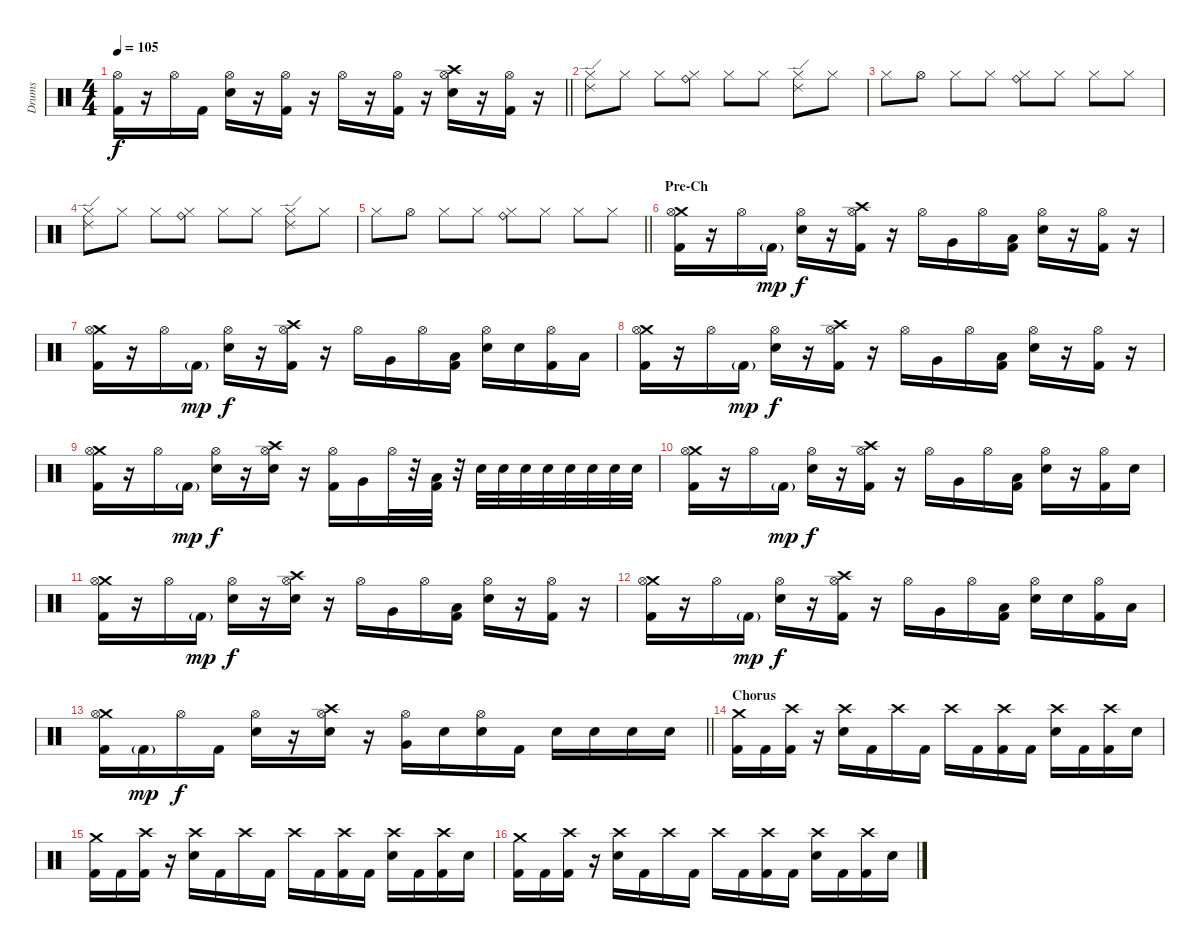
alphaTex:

\track ("Drums" "Drums") {instrument percussion}
\staff {score}
\articulation defaults
\ts (4 4)
\tempo 105
\clef neutral
\barLineRight lightlight
\ks c
("Hi-Hat (open)" "Kick (hit) 2").16{dy f} r.16 "Hi-Hat (open)".16 "Kick (hit) 2".16 ("Hi-Hat (open)" "Electric Snare (hit)").16 r.16 ("Hi-Hat (open)" "Kick (hit) 2").16 r.16 "Hi-Hat (open)".16 r.16 ("Hi-Hat (open)" "Kick (hit) 2").16 r.16 ("Crash high (hit)" "Hi-Hat (open)" "Electric Snare (hit)").16 r.16 ("Hi-Hat (open)" "Kick (hit) 2").16 r.16 |
("Ride (edge) 2" "Hi-Hat (closed)").8 "Hi-Hat (closed)".8 "Hi-Hat (closed)".8 ("Ride (bell)" "Hi-Hat (closed)").8 "Hi-Hat (closed)".8 "Hi-Hat (closed)".8 ("Ride (edge) 2" "Hi-Hat (closed)").8 "Hi-Hat (closed)".8 |
"Hi-Hat (closed)".8 "Hi-Hat (open)".8 "Hi-Hat (closed)".8 "Hi-Hat (closed)".8 ("Ride (bell)" "Hi-Hat (closed)").8 "Hi-Hat (closed)".8 "Hi-Hat (closed)".8 "Hi-Hat (closed)".8 |
("Ride (edge) 2" "Hi-Hat (closed)").8 "Hi-Hat (closed)".8 "Hi-Hat (closed)".8 ("Ride (bell)" "Hi-Hat (closed)").8 "Hi-Hat (closed)".8 "Hi-Hat (closed)".8 ("Ride (edge) 2" "Hi-Hat (closed)").8 "Hi-Hat (closed)".8 |
\barLineRight lightlight "Hi-Hat (closed)".8 "Hi-Hat (open)".8 "Hi-Hat (closed)".8 "Hi-Hat (closed)".8
("Ride (bell)" "Hi-Hat (closed)").8 "Hi-Hat (closed)".8 "Hi-Hat (closed)".8 "Hi-Hat (closed)".8 |
\section ("" "Pre-Ch")
("Crash medium (hit)" "Hi-Hat (open)" "Kick (hit) 2").16 r.16 "Hi-Hat (open)".16 "Kick (hit) 2"{g}.16{dy mp} ("Hi-Hat (open)" "Electric Snare (hit)").16{dy f} r.16 ("Crash high (hit)" "Hi-Hat (open)" "Kick (hit) 2").16 r.16 "Hi-Hat (open)".16 "Very Low Tom (hit)".16 "Hi-Hat (open)".16 ("Low Floor Tom (hit)" "Kick (hit) 2").16 ("Hi-Hat (open)" "Electric Snare (hit)").16 r.16 ("Hi-Hat (open)" "Kick (hit) 2").16 r.16 |
("Crash medium (hit)" "Hi-Hat (open)" "Kick (hit) 2").16 r.16 "Hi-Hat (open)".16 "Kick (hit) 2"{g}.16{dy mp} ("Hi-Hat (open)" "Electric Snare (hit)").16{dy f} r.16 ("Crash high (hit)" "Hi-Hat (open)" "Kick (hit) 2").16 r.16 "Hi-Hat (open)".16 "Very Low Tom (hit)".16 "Hi-Hat (open)".16 ("Low Floor Tom (hit)" "Kick (hit) 2").16 ("Hi-Hat (open)" "Electric Snare (hit)").16 "Electric Snare (hit)".16 ("Hi-Hat (open)" "Kick (hit) 2").16 "Low Floor Tom (hit)".16 |
("Crash medium (hit)" "Hi-Hat (open)" "Kick (hit) 2").16 r.16 "Hi-Hat (open)".16 "Kick (hit) 2"{g}.16{dy mp} ("Hi-Hat (open)" "Electric Snare (hit)").16{dy f} r.16 ("Crash high (hit)" "Hi-Hat (open)" "Kick (hit) 2").16 r.16 "Hi-Hat (open)".16 "Very Low Tom (hit)".16 "Hi-Hat (open)".16 ("Low Floor Tom (hit)" "Kick (hit) 2").16 ("Hi-Hat (open)" "Electric Snare (hit)").16 r.16 ("Hi-Hat (open)" "Kick (hit) 2").16 r.16 |
("Crash medium (hit)" "Hi-Hat (open)" "Kick (hit) 2").16 r.16 "Hi-Hat (open)".16 "Kick (hit) 2"{g}.16{dy mp} ("Hi-Hat (open)" "Electric Snare (hit)").16{dy f} r.16 ("Crash high (hit)" "Hi-Hat (open)" "Electric Snare (hit)").16 r.16 ("Hi-Hat (open)" "Kick (hit) 2").16 "Very Low Tom (hit)".16 "Hi-Hat (open)".32 r.32 ("Low Floor Tom (hit)" "Kick (hit) 2").32 r.32 "Electric Snare (hit)".32 "Electric Snare (hit)".32 "Electric Snare (hit)".32 "Electric Snare (hit)".32 "Electric Snare (hit)".32 "Electric Snare (hit)".32 "Electric Snare (hit)".32 "Electric Snare (hit)".32 |
("Crash medium (hit)" "Hi-Hat (open)" "Kick (hit) 2").16 r.16 "Hi-Hat (open)".16 "Kick (hit) 2"{g}.16{dy mp} ("Hi-Hat (open)" "Electric Snare (hit)").16{dy f} r.16 ("Crash high (hit)" "Hi-Hat (open)" "Kick (hit) 2").16 r.16 "Hi-Hat (open)".16 "Very Low Tom (hit)".16 "Hi-Hat (open)".16 ("Low Floor Tom (hit)" "Kick (hit) 2").16 ("Hi-Hat (open)" "Electric Snare (hit)").16 r.16 ("Hi-Hat (open)" "Kick (hit) 2").16 "Electric Snare (hit)".16 |
("Crash medium (hit)" "Hi-Hat (open)" "Kick (hit) 2").16 r.16 "Hi-Hat (open)".16 "Kick (hit) 2"{g}.16{dy mp} ("Hi-Hat (open)" "Electric Snare (hit)").16{dy f} r.16 ("Crash high (hit)" "Hi-Hat (open)" "Electric Snare (hit)").16 r.16 "Hi-Hat (open)".16 "Very Low Tom (hit)".16 "Hi-Hat (open)".16 ("Low Floor Tom (hit)" "Kick (hit) 2").16 ("Hi-Hat (open)" "Electric Snare (hit)").16 r.16 ("Hi-Hat (open)" "Kick (hit) 2").16 r.16 |
("Crash medium (hit)" "Hi-Hat (open)" "Kick (hit) 2").16 r.16 "Hi-Hat (open)".16 "Kick (hit) 2"{g}.16{dy mp} ("Hi-Hat (open)" "Electric Snare (hit)").16{dy f} r.16 ("Crash high (hit)" "Hi-Hat (open)" "Kick (hit) 2").16 r.16 "Hi-Hat (open)".16 "Very Low Tom (hit)".16 "Hi-Hat (open)".16 ("Low Floor Tom (hit)" "Kick (hit) 2").16 ("Hi-Hat (open)" "Electric Snare (hit)").16 "Electric Snare (hit)".16 ("Hi-Hat (open)" "Kick (hit) 2").16 "Low Floor Tom (hit)".16 |
\barLineRight lightlight
("Crash medium (hit)" "Hi-Hat (open)" "Kick (hit) 2").16 "Kick (hit) 2"{g}.16{dy mp} "Hi-Hat (open)".16{dy f} "Kick (hit) 2".16 ("Hi-Hat (open)" "Electric Snare (hit)").16 r.16 ("Crash high (hit)" "Hi-Hat (open)" "Electric Snare (hit)").16 r.16 ("Hi-Hat (open)" "Very Low Tom (hit)").16 "Electric Snare (hit)".16 ("Hi-Hat (open)" "Electric Snare (hit)").16 "Kick (hit) 2".16 "Electric Snare (hit)".16 "Electric Snare (hit)".16 "Electric Snare (hit)".16 "Electric Snare (hit)".16 |
\section ("" "Chorus")
("Crash medium (hit)" "Kick (hit) 2").16 "Kick (hit) 2".16 ("Crash high (hit)" "Kick (hit) 2").16 r.16 ("Crash high (hit)" "Electric Snare (hit)").16 "Kick (hit) 2".16 "Crash high (hit)".16 "Kick (hit) 2".16 "Crash high (hit)".16 "Kick (hit) 2".16 ("Crash high (hit)" "Kick (hit) 2").16 "Kick (hit) 2".16 ("Crash high (hit)" "Electric Snare (hit)").16 "Kick (hit) 2".16 ("Crash high (hit)" "Kick (hit) 2").16 "Electric Snare (hit)".16 |
("Crash medium (hit)" "Kick (hit) 2").16 "Kick (hit) 2".16 ("Crash high (hit)" "Kick (hit) 2").16 r.16 ("Crash high (hit)" "Electric Snare (hit)").16 "Kick (hit) 2".16 "Crash high (hit)".16 "Kick (hit) 2".16 "Crash high (hit)".16 "Kick (hit) 2".16 ("Crash high (hit)" "Kick (hit) 2").16 "Kick (hit) 2".16 ("Crash high (hit)" "Electric Snare (hit)").16 "Kick (hit) 2".16 ("Crash high (hit)" "Kick (hit) 2").16 "Electric Snare (hit)".16 |
("Crash medium (hit)" "Kick (hit) 2").16 "Kick (hit) 2".16 ("Crash high (hit)" "Kick (hit) 2").16 r.16 ("Crash high (hit)" "Electric Snare (hit)").16 "Kick (hit) 2".16 "Crash high (hit)".16 "Kick (hit) 2".16 "Crash high (hit)".16 "Kick (hit) 2".16 ("Crash high (hit)" "Kick (hit) 2").16 "Kick (hit) 2".16 ("Crash high (hit)" "Electric Snare (hit)").16 "Kick (hit) 2".16 ("Crash high (hit)" "Kick (hit) 2").16 "Electric Snare (hit)".16
